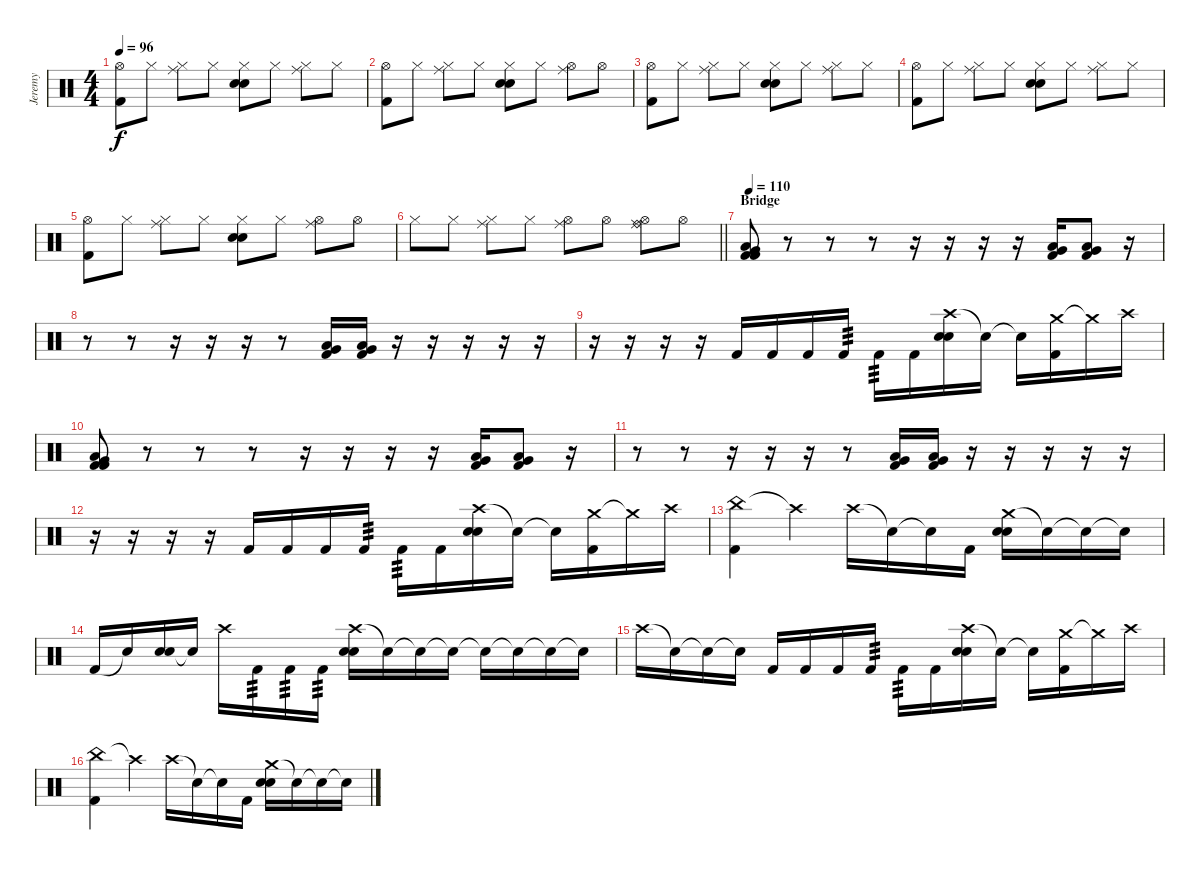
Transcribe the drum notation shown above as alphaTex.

\track ("Jeremy" "Jeremy") {instrument percussion}
\staff {score}
\articulation defaults
\ts (4 4)
\tempo 96
\clef neutral
\ks c
("Hi-Hat (open)" "Kick (hit) 2").8{dy f} "Hi-Hat (closed)".8 ("Hi-Hat (closed)" "Ride (middle)").8 "Hi-Hat (closed)".8 ("Hi-Hat (closed)" "Electric Snare (hit)" "Snare (hit) 2").8 "Hi-Hat (closed)".8 ("Hi-Hat (closed)" "Ride (middle)").8 "Hi-Hat (closed)".8 |
("Hi-Hat (open)" "Kick (hit) 2").8 "Hi-Hat (closed)".8 ("Hi-Hat (closed)" "Ride (middle)").8 "Hi-Hat (closed)".8 ("Hi-Hat (closed)" "Electric Snare (hit)" "Snare (hit) 2").8 "Hi-Hat (closed)".8 ("Hi-Hat (open)" "Ride (middle)").8 "Hi-Hat (open)".8 |
("Hi-Hat (open)" "Kick (hit) 2").8 "Hi-Hat (closed)".8 ("Hi-Hat (closed)" "Ride (middle)").8 "Hi-Hat (closed)".8 ("Hi-Hat (closed)" "Electric Snare (hit)" "Snare (hit) 2").8 "Hi-Hat (closed)".8 ("Hi-Hat (closed)" "Ride (middle)").8 "Hi-Hat (closed)".8 |
("Hi-Hat (open)" "Kick (hit) 2").8 "Hi-Hat (closed)".8 ("Hi-Hat (closed)" "Ride (middle)").8 "Hi-Hat (closed)".8 ("Hi-Hat (closed)" "Electric Snare (hit)" "Snare (hit) 2").8 "Hi-Hat (closed)".8 ("Hi-Hat (closed)" "Ride (middle)").8 "Hi-Hat (closed)".8 |
("Hi-Hat (open)" "Kick (hit) 2").8 "Hi-Hat (closed)".8 ("Hi-Hat (closed)" "Ride (middle)").8 "Hi-Hat (closed)".8 ("Hi-Hat (closed)" "Electric Snare (hit)" "Snare (hit) 2").8 "Hi-Hat (closed)".8 ("Hi-Hat (open)" "Ride (middle)").8 "Hi-Hat (open)".8 |
\barLineRight lightlight "Hi-Hat (closed)".8 "Hi-Hat (closed)".8
("Hi-Hat (closed)" "Ride (middle)").8 "Hi-Hat (closed)".8 ("Hi-Hat (open)" "Ride (middle)").8 "Hi-Hat (open)".8 ("Hi-Hat (open)" "Ride (middle)" "Ride (bell)").8 "Hi-Hat (open)".8 |
\section ("" "Bridge")
\tempo 110
("Low Floor Tom (hit)" "Very Low Tom (hit)" "Kick (hit) 2" "Kick (hit) 2").8 r.8 r.8 r.8 r.16 r.16 r.16 r.16 ("Low Floor Tom (hit)" "Very Low Tom (hit)" "Kick (hit) 2").16 ("Low Floor Tom (hit)" "Very Low Tom (hit)" "Kick (hit) 2").8 r.16 |
r.8 r.8 r.16 r.16 r.16 r.8 ("Low Floor Tom (hit)" "Very Low Tom (hit)" "Kick (hit) 2").16 ("Low Floor Tom (hit)" "Very Low Tom (hit)" "Kick (hit) 2").16 r.16 r.16 r.16 r.16 r.16 |
r.16 r.16 r.16 r.16 "Kick (hit) 2".16 "Kick (hit) 2".16 "Kick (hit) 2".16 "Kick (hit) 2".16{tp 3} "Kick (hit) 2".16{tp 3} "Kick (hit) 2".16 ("Crash high (hit)" "Electric Snare (hit)" "Snare (hit) 2").16 "Snare (hit)"{t}.16 "Snare (hit)"{t}.16 ("Crash medium (hit)" "Kick (hit) 2").16 "Crash medium (hit)"{t}.16 "Crash high (hit)".16 |
("Low Floor Tom (hit)" "Very Low Tom (hit)" "Kick (hit) 2" "Kick (hit) 2").8 r.8 r.8 r.8 r.16 r.16 r.16 r.16 ("Low Floor Tom (hit)" "Very Low Tom (hit)" "Kick (hit) 2").16 ("Low Floor Tom (hit)" "Very Low Tom (hit)" "Kick (hit) 2").8 r.16 |
r.8 r.8 r.16 r.16 r.16 r.8 ("Low Floor Tom (hit)" "Very Low Tom (hit)" "Kick (hit) 2").16 ("Low Floor Tom (hit)" "Very Low Tom (hit)" "Kick (hit) 2").16 r.16 r.16 r.16 r.16 r.16 |
r.16 r.16 r.16 r.16 "Kick (hit) 2".16 "Kick (hit) 2".16 "Kick (hit) 2".16 "Kick (hit) 2".16{tp 3} "Kick (hit) 2".16{tp 3} "Kick (hit) 2".16 ("Crash high (hit)" "Electric Snare (hit)" "Snare (hit) 2").16 "Snare (hit)"{t}.16 "Snare (hit)"{t}.16 ("Crash medium (hit)" "Kick (hit) 2").16 "Crash medium (hit)"{t}.16 "Crash high (hit)".16 |
("China (hit)" "Kick (hit) 2").4 "Crash high (hit)"{t}.4 "Crash high (hit)".16 "Snare (hit)"{t}.16 "Snare (hit)"{t}.16 "Kick (hit) 2".16 ("Crash medium (hit)" "Electric Snare (hit)" "Snare (hit) 2").16 "Snare (hit)"{t}.16 "Snare (hit)"{t}.16 "Snare (hit)"{t}.16 |
"Kick (hit) 2".16 "Snare (hit)"{t}.16 ("Electric Snare (hit)" "Snare (hit) 2").16 "Snare (hit)"{t}.16 "Crash high (hit)".16 "Kick (hit) 2".16{tp 3} "Kick (hit) 2".16{tp 3} "Kick (hit) 2".16{tp 3} ("Crash high (hit)" "Electric Snare (hit)" "Snare (hit) 2").16 "Snare (hit)"{t}.16 "Snare (hit)"{t}.16 "Snare (hit)"{t}.16 "Snare (hit)"{t}.16 "Snare (hit)"{t}.16 "Snare (hit)"{t}.16 "Snare (hit)"{t}.16 |
"Crash high (hit)".16 "Snare (hit)"{t}.16 "Snare (hit)"{t}.16 "Snare (hit)"{t}.16 "Kick (hit) 2".16 "Kick (hit) 2".16 "Kick (hit) 2".16 "Kick (hit) 2".16{tp 3} "Kick (hit) 2".16{tp 3} "Kick (hit) 2".16 ("Crash high (hit)" "Electric Snare (hit)" "Snare (hit) 2").16 "Snare (hit)"{t}.16 "Snare (hit)"{t}.16 ("Crash medium (hit)" "Kick (hit) 2").16 "Crash medium (hit)"{t}.16 "Crash high (hit)".16 |
("China (hit)" "Kick (hit) 2").4 "Crash high (hit)"{t}.4 "Crash high (hit)".16 "Snare (hit)"{t}.16 "Snare (hit)"{t}.16 "Kick (hit) 2".16 ("Crash medium (hit)" "Electric Snare (hit)" "Snare (hit) 2").16 "Snare (hit)"{t}.16 "Snare (hit)"{t}.16 "Snare (hit)"{t}.16
